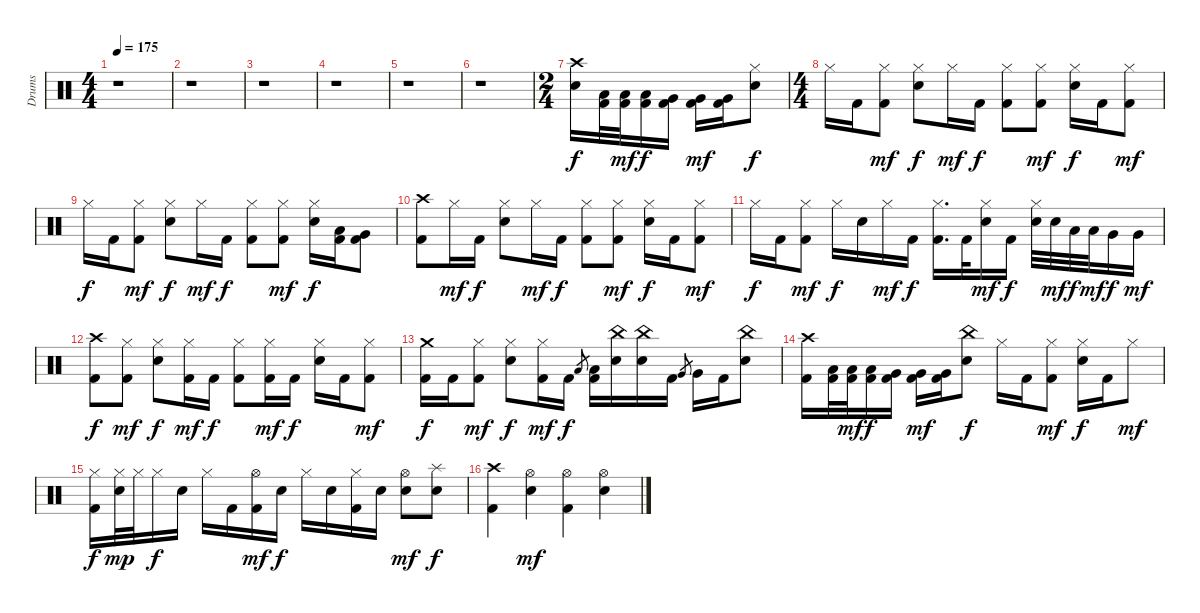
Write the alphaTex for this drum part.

\track ("Drums" "Drums") {instrument percussion}
\staff {score}
\articulation defaults
\ts (4 4)
\tempo 175
\tempo 88
\tempo 175
\clef neutral
\ks c
r.1{dy f} |
r.1 |
r.1 |
r.1 |
r.1 |
r.1 |
\ts (2 4)
("Crash high (hit)" "Electric Snare (hit)").16 ("Kick (hit) 2" "Low Tom (hit)").32 ("Kick (hit) 2" "Low Tom (hit)").32{dy mf} ("Kick (hit) 2" "Low Tom (hit)").16{dy f} ("Kick (hit) 2" "Very Low Tom (hit)").16 ("Kick (hit) 2" "Very Low Tom (hit)").16{dy mf} ("Kick (hit) 2" "Very Low Tom (hit)").16 ("Hi-Hat (closed)" "Electric Snare (hit)").8{dy f} |
\ts (4 4)
"Hi-Hat (closed)".16 "Kick (hit) 2".16 ("Kick (hit) 2" "Hi-Hat (closed)").8{dy mf} ("Hi-Hat (closed)" "Electric Snare (hit)").8{dy f} "Hi-Hat (closed)".16{dy mf} "Kick (hit) 2".16{dy f} ("Kick (hit) 2" "Hi-Hat (closed)").8 ("Kick (hit) 2" "Hi-Hat (closed)").8{dy mf} ("Hi-Hat (closed)" "Electric Snare (hit)").16{dy f} "Kick (hit) 2".16 ("Kick (hit) 2" "Hi-Hat (closed)").8{dy mf} |
"Hi-Hat (closed)".16{dy f} "Kick (hit) 2".16 ("Kick (hit) 2" "Hi-Hat (closed)").8{dy mf} ("Hi-Hat (closed)" "Electric Snare (hit)").8{dy f} "Hi-Hat (closed)".16{dy mf} "Kick (hit) 2".16{dy f} ("Kick (hit) 2" "Hi-Hat (closed)").8 ("Kick (hit) 2" "Hi-Hat (closed)").8{dy mf} ("Hi-Hat (closed)" "Electric Snare (hit)").16{dy f} ("Kick (hit) 2" "Low Tom (hit)").16 ("Kick (hit) 2" "Very Low Tom (hit)").8 |
("Kick (hit) 2" "Crash high (hit)").8 "Hi-Hat (closed)".16{dy mf} "Kick (hit) 2".16{dy f} ("Hi-Hat (closed)" "Electric Snare (hit)").8 "Hi-Hat (closed)".16{dy mf} "Kick (hit) 2".16{dy f} ("Kick (hit) 2" "Hi-Hat (closed)").8 ("Kick (hit) 2" "Hi-Hat (closed)").8{dy mf} ("Hi-Hat (closed)" "Electric Snare (hit)").16{dy f} "Kick (hit) 2".16 ("Kick (hit) 2" "Hi-Hat (closed)").8{dy mf} |
"Hi-Hat (closed)".16{dy f} "Kick (hit) 2".16 ("Kick (hit) 2" "Hi-Hat (closed)").8{dy mf} "Hi-Hat (closed)".16{dy f} "Electric Snare (hit)".16 "Hi-Hat (closed)".16{dy mf} "Kick (hit) 2".16{dy f} ("Kick (hit) 2" "Hi-Hat (closed)").16{d} "Kick (hit) 2".32 ("Hi-Hat (closed)" "Electric Snare (hit)").16{dy mf} "Kick (hit) 2".16{dy f} ("Hi-Hat (closed)" "Electric Snare (hit)").32 "Electric Snare (hit)".32{dy mf} "Low Tom (hit)".32{dy f} "Low Tom (hit)".32{dy mf} "Very Low Tom (hit)".16{dy f} "Very Low Tom (hit)".16{dy mf} |
("Kick (hit) 2" "Crash high (hit)").8{dy f} ("Kick (hit) 2" "Hi-Hat (closed)").8{dy mf} ("Hi-Hat (closed)" "Electric Snare (hit)").8{dy f} ("Kick (hit) 2" "Hi-Hat (closed)").16{dy mf} "Kick (hit) 2".16{dy f} ("Kick (hit) 2" "Hi-Hat (closed)").8 ("Kick (hit) 2" "Hi-Hat (closed)").16{dy mf} "Kick (hit) 2".16{dy f} ("Hi-Hat (closed)" "Electric Snare (hit)").16 "Kick (hit) 2".16 ("Kick (hit) 2" "Hi-Hat (closed)").8{dy mf} |
("Kick (hit) 2" "Crash medium (hit)").16{dy f} "Kick (hit) 2".16 ("Kick (hit) 2" "Hi-Hat (closed)").8{dy mf} ("Hi-Hat (closed)" "Electric Snare (hit)").8{dy f} ("Kick (hit) 2" "Hi-Hat (closed)").16{dy mf} "Kick (hit) 2".16{dy f} "Low Tom (hit)".8{gr} ("Kick (hit) 2" "Low Tom (hit)").16 ("China (hit)" "Electric Snare (hit)").16 ("China (hit)" "Electric Snare (hit)").16 "Kick (hit) 2".16 "Very Low Tom (hit)".8{gr} "Very Low Tom (hit)".16 "Kick (hit) 2".16 ("China (hit)" "Electric Snare (hit)").8 |
("Kick (hit) 2" "Crash high (hit)").16 ("Kick (hit) 2" "Low Tom (hit)").32 ("Kick (hit) 2" "Low Tom (hit)").32{dy mf} ("Kick (hit) 2" "Low Tom (hit)").16{dy f} ("Kick (hit) 2" "Very Low Tom (hit)").16 ("Kick (hit) 2" "Very Low Tom (hit)").16{dy mf} ("Kick (hit) 2" "Very Low Tom (hit)").16 ("China (hit)" "Electric Snare (hit)").8{dy f} "Hi-Hat (closed)".16 "Kick (hit) 2".16 ("Kick (hit) 2" "Hi-Hat (closed)").8{dy mf} ("Hi-Hat (closed)" "Electric Snare (hit)").16{dy f} "Kick (hit) 2".16 "Hi-Hat (closed)".8{dy mf} |
("Kick (hit) 2" "Hi-Hat (closed)").16{dy f} ("Hi-Hat (closed)" "Electric Snare (hit)").32{dy mp} "Hi-Hat (closed)".32 "Hi-Hat (closed)".16{dy f} "Electric Snare (hit)".16 "Hi-Hat (closed)".16 "Kick (hit) 2".16 ("Kick (hit) 2" "Hi-Hat (open)").16{dy mf} "Electric Snare (hit)".16{dy f} "Hi-Hat (closed)".16 "Electric Snare (hit)".16 ("Kick (hit) 2" "Hi-Hat (closed)").16 "Electric Snare (hit)".16 ("Hi-Hat (open)" "Electric Snare (hit)").8{dy mf} ("Splash (hit)" "Electric Snare (hit)").8{dy f} |
("Kick (hit) 2" "Crash high (hit)").4 ("Hi-Hat (open)" "Electric Snare (hit)").4{dy mf} ("Kick (hit) 2" "Hi-Hat (open)").4 ("Hi-Hat (open)" "Electric Snare (hit)").4
